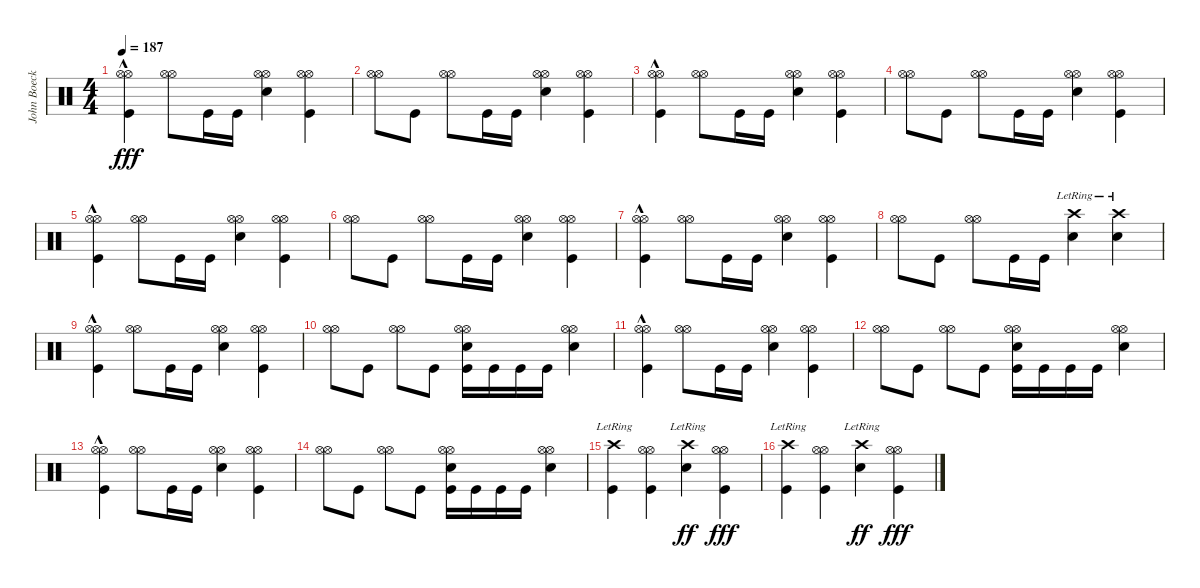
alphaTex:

\track ("John Boecklin - Drums" "John Boeck") {instrument percussion}
\staff {score}
\articulation defaults
\ts (4 4)
\tempo 187
\clef neutral
\ks c
("Hi-Hat (open)" "Hi-Hat (open)" "Kick (hit)"{hac}).4{dy fff} ("Hi-Hat (open)" "Hi-Hat (open)").8 "Kick (hit)".16 "Kick (hit)".16 ("Snare (hit) 2" "Hi-Hat (open)" "Hi-Hat (open)").4 ("Hi-Hat (open)" "Hi-Hat (open)" "Kick (hit)").4 |
("Hi-Hat (open)" "Hi-Hat (open)").8 "Kick (hit)".8 ("Hi-Hat (open)" "Hi-Hat (open)").8 "Kick (hit)".16 "Kick (hit)".16 ("Snare (hit) 2" "Hi-Hat (open)" "Hi-Hat (open)").4 ("Hi-Hat (open)" "Hi-Hat (open)" "Kick (hit)").4 |
("Hi-Hat (open)" "Hi-Hat (open)" "Kick (hit)"{hac}).4 ("Hi-Hat (open)" "Hi-Hat (open)").8 "Kick (hit)".16 "Kick (hit)".16 ("Snare (hit) 2" "Hi-Hat (open)" "Hi-Hat (open)").4 ("Hi-Hat (open)" "Hi-Hat (open)" "Kick (hit)").4 |
("Hi-Hat (open)" "Hi-Hat (open)").8 "Kick (hit)".8 ("Hi-Hat (open)" "Hi-Hat (open)").8 "Kick (hit)".16 "Kick (hit)".16 ("Snare (hit) 2" "Hi-Hat (open)" "Hi-Hat (open)").4 ("Hi-Hat (open)" "Hi-Hat (open)" "Kick (hit)").4 |
("Hi-Hat (open)" "Hi-Hat (open)" "Kick (hit)"{hac}).4 ("Hi-Hat (open)" "Hi-Hat (open)").8 "Kick (hit)".16 "Kick (hit)".16 ("Snare (hit) 2" "Hi-Hat (open)" "Hi-Hat (open)").4 ("Hi-Hat (open)" "Hi-Hat (open)" "Kick (hit)").4 |
("Hi-Hat (open)" "Hi-Hat (open)").8 "Kick (hit)".8 ("Hi-Hat (open)" "Hi-Hat (open)").8 "Kick (hit)".16 "Kick (hit)".16 ("Snare (hit) 2" "Hi-Hat (open)" "Hi-Hat (open)").4 ("Hi-Hat (open)" "Hi-Hat (open)" "Kick (hit)").4 |
("Hi-Hat (open)" "Hi-Hat (open)" "Kick (hit)"{hac}).4 ("Hi-Hat (open)" "Hi-Hat (open)").8 "Kick (hit)".16 "Kick (hit)".16 ("Snare (hit) 2" "Hi-Hat (open)" "Hi-Hat (open)").4 ("Hi-Hat (open)" "Hi-Hat (open)" "Kick (hit)").4 |
("Hi-Hat (open)" "Hi-Hat (open)").8 "Kick (hit)".8 ("Hi-Hat (open)" "Hi-Hat (open)").8 "Kick (hit)".16 "Kick (hit)".16 ("Snare (hit) 2" "Crash high (hit)"{lr}).4 ("Snare (hit) 2" "Crash high (hit)"{lr}).4 |
("Hi-Hat (open)" "Hi-Hat (open)" "Kick (hit)"{hac}).4 ("Hi-Hat (open)" "Hi-Hat (open)").8 "Kick (hit)".16 "Kick (hit)".16 ("Snare (hit) 2" "Hi-Hat (open)" "Hi-Hat (open)").4 ("Hi-Hat (open)" "Hi-Hat (open)" "Kick (hit)").4 |
("Hi-Hat (open)" "Hi-Hat (open)").8 "Kick (hit)".8 ("Hi-Hat (open)" "Hi-Hat (open)").8 "Kick (hit)".8 ("Snare (hit) 2" "Hi-Hat (open)" "Hi-Hat (open)" "Kick (hit)").16 "Kick (hit)".16 "Kick (hit)".16 "Kick (hit)".16 ("Snare (hit) 2" "Hi-Hat (open)" "Hi-Hat (open)").4 |
("Hi-Hat (open)" "Hi-Hat (open)" "Kick (hit)"{hac}).4 ("Hi-Hat (open)" "Hi-Hat (open)").8 "Kick (hit)".16 "Kick (hit)".16 ("Snare (hit) 2" "Hi-Hat (open)" "Hi-Hat (open)").4 ("Hi-Hat (open)" "Hi-Hat (open)" "Kick (hit)").4 |
("Hi-Hat (open)" "Hi-Hat (open)").8 "Kick (hit)".8 ("Hi-Hat (open)" "Hi-Hat (open)").8 "Kick (hit)".8 ("Snare (hit) 2" "Hi-Hat (open)" "Hi-Hat (open)" "Kick (hit)").16 "Kick (hit)".16 "Kick (hit)".16 "Kick (hit)".16 ("Snare (hit) 2" "Hi-Hat (open)" "Hi-Hat (open)").4 |
("Hi-Hat (open)" "Hi-Hat (open)" "Kick (hit)"{hac}).4 ("Hi-Hat (open)" "Hi-Hat (open)").8 "Kick (hit)".16 "Kick (hit)".16 ("Snare (hit) 2" "Hi-Hat (open)" "Hi-Hat (open)").4 ("Hi-Hat (open)" "Hi-Hat (open)" "Kick (hit)").4 |
("Hi-Hat (open)" "Hi-Hat (open)").8 "Kick (hit)".8 ("Hi-Hat (open)" "Hi-Hat (open)").8 "Kick (hit)".8 ("Snare (hit) 2" "Hi-Hat (open)" "Hi-Hat (open)" "Kick (hit)").16 "Kick (hit)".16 "Kick (hit)".16 "Kick (hit)".16 ("Snare (hit) 2" "Hi-Hat (open)" "Hi-Hat (open)").4 |
("Crash high (hit)"{lr} "Kick (hit)").4 ("Hi-Hat (open)" "Hi-Hat (open)" "Kick (hit)").4 ("Snare (hit) 2" "Crash high (hit)"{lr}).4{dy ff} ("Hi-Hat (open)" "Hi-Hat (open)" "Kick (hit)").4{dy fff} |
("Crash high (hit)"{lr} "Kick (hit)").4 ("Hi-Hat (open)" "Hi-Hat (open)" "Kick (hit)").4 ("Snare (hit) 2" "Crash high (hit)"{lr}).4{dy ff} ("Hi-Hat (open)" "Hi-Hat (open)" "Kick (hit)").4{dy fff}
